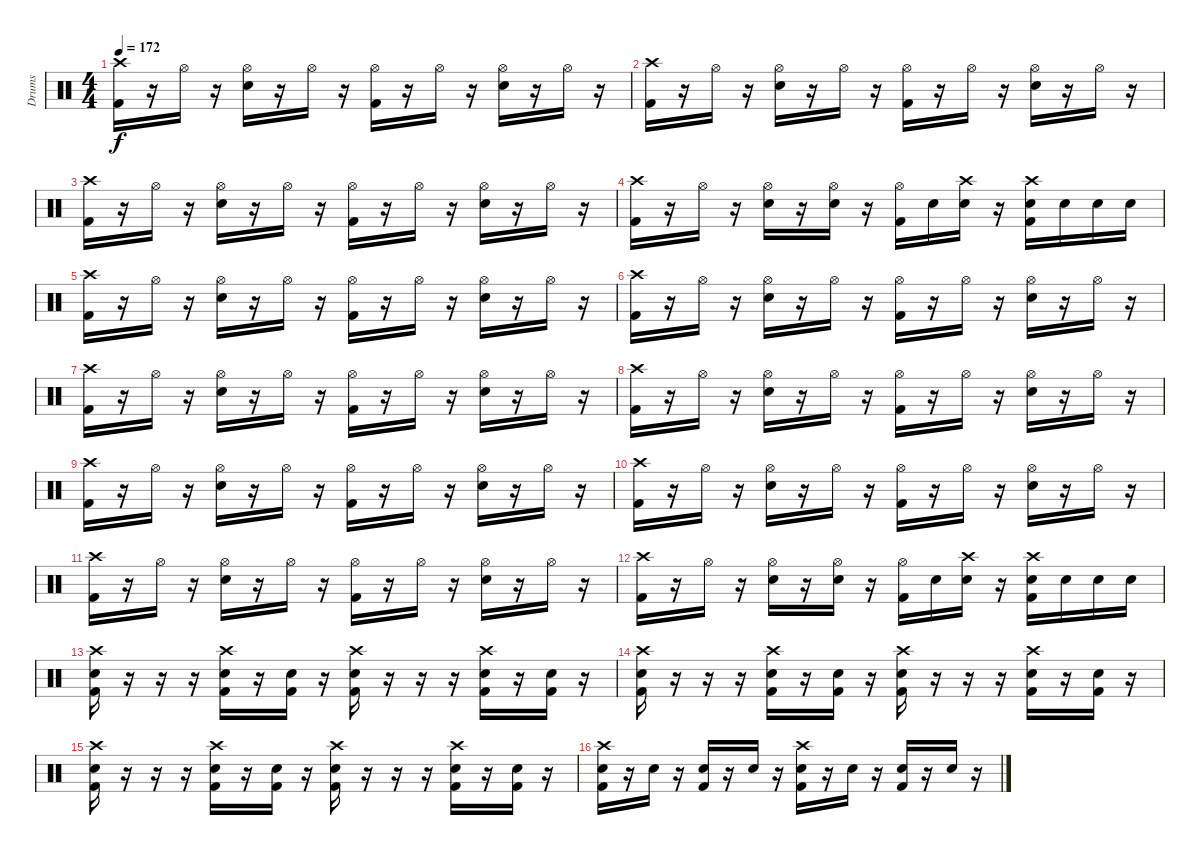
\track ("Drums" "Drums") {instrument percussion}
\staff {score}
\articulation defaults
\ts (4 4)
\tempo 172
\clef neutral
\ks c
("Crash high (hit)" "Kick (hit) 2").16{dy f} r.16 "Hi-Hat (open)".16 r.16 ("Hi-Hat (open)" "Electric Snare (hit)").16 r.16 "Hi-Hat (open)".16 r.16 ("Hi-Hat (open)" "Kick (hit) 2").16 r.16 "Hi-Hat (open)".16 r.16 ("Hi-Hat (open)" "Electric Snare (hit)").16 r.16 "Hi-Hat (open)".16 r.16 |
("Crash high (hit)" "Kick (hit) 2").16 r.16 "Hi-Hat (open)".16 r.16 ("Hi-Hat (open)" "Electric Snare (hit)").16 r.16 "Hi-Hat (open)".16 r.16 ("Hi-Hat (open)" "Kick (hit) 2").16 r.16 "Hi-Hat (open)".16 r.16 ("Hi-Hat (open)" "Electric Snare (hit)").16 r.16 "Hi-Hat (open)".16 r.16 |
("Crash high (hit)" "Kick (hit) 2").16 r.16 "Hi-Hat (open)".16 r.16 ("Hi-Hat (open)" "Electric Snare (hit)").16 r.16 "Hi-Hat (open)".16 r.16 ("Hi-Hat (open)" "Kick (hit) 2").16 r.16 "Hi-Hat (open)".16 r.16 ("Hi-Hat (open)" "Electric Snare (hit)").16 r.16 "Hi-Hat (open)".16 r.16 |
("Crash high (hit)" "Kick (hit) 2").16 r.16 "Hi-Hat (open)".16 r.16 ("Hi-Hat (open)" "Electric Snare (hit)").16 r.16 ("Hi-Hat (open)" "Electric Snare (hit)").16 r.16 ("Hi-Hat (open)" "Kick (hit) 2").16 "Electric Snare (hit)".16 ("Crash high (hit)" "Electric Snare (hit)").16 r.16 ("Crash high (hit)" "Electric Snare (hit)" "Kick (hit) 2").16 "Electric Snare (hit)".16 "Electric Snare (hit)".16 "Electric Snare (hit)".16 |
("Crash high (hit)" "Kick (hit) 2").16 r.16 "Hi-Hat (open)".16 r.16 ("Hi-Hat (open)" "Electric Snare (hit)").16 r.16 "Hi-Hat (open)".16 r.16 ("Hi-Hat (open)" "Kick (hit) 2").16 r.16 "Hi-Hat (open)".16 r.16 ("Hi-Hat (open)" "Electric Snare (hit)").16 r.16 "Hi-Hat (open)".16 r.16 |
("Crash high (hit)" "Kick (hit) 2").16 r.16 "Hi-Hat (open)".16 r.16 ("Hi-Hat (open)" "Electric Snare (hit)").16 r.16 "Hi-Hat (open)".16 r.16 ("Hi-Hat (open)" "Kick (hit) 2").16 r.16 "Hi-Hat (open)".16 r.16 ("Hi-Hat (open)" "Electric Snare (hit)").16 r.16 "Hi-Hat (open)".16 r.16 |
("Crash high (hit)" "Kick (hit) 2").16 r.16 "Hi-Hat (open)".16 r.16 ("Hi-Hat (open)" "Electric Snare (hit)").16 r.16 "Hi-Hat (open)".16 r.16 ("Hi-Hat (open)" "Kick (hit) 2").16 r.16 "Hi-Hat (open)".16 r.16 ("Hi-Hat (open)" "Electric Snare (hit)").16 r.16 "Hi-Hat (open)".16 r.16 |
("Crash high (hit)" "Kick (hit) 2").16 r.16 "Hi-Hat (open)".16 r.16 ("Hi-Hat (open)" "Electric Snare (hit)").16 r.16 "Hi-Hat (open)".16 r.16 ("Hi-Hat (open)" "Kick (hit) 2").16 r.16 "Hi-Hat (open)".16 r.16 ("Hi-Hat (open)" "Electric Snare (hit)").16 r.16 "Hi-Hat (open)".16 r.16 |
("Crash high (hit)" "Kick (hit) 2").16 r.16 "Hi-Hat (open)".16 r.16 ("Hi-Hat (open)" "Electric Snare (hit)").16 r.16 "Hi-Hat (open)".16 r.16 ("Hi-Hat (open)" "Kick (hit) 2").16 r.16 "Hi-Hat (open)".16 r.16 ("Hi-Hat (open)" "Electric Snare (hit)").16 r.16 "Hi-Hat (open)".16 r.16 |
("Crash high (hit)" "Kick (hit) 2").16 r.16 "Hi-Hat (open)".16 r.16 ("Hi-Hat (open)" "Electric Snare (hit)").16 r.16 "Hi-Hat (open)".16 r.16 ("Hi-Hat (open)" "Kick (hit) 2").16 r.16 "Hi-Hat (open)".16 r.16 ("Hi-Hat (open)" "Electric Snare (hit)").16 r.16 "Hi-Hat (open)".16 r.16 |
("Crash high (hit)" "Kick (hit) 2").16 r.16 "Hi-Hat (open)".16 r.16 ("Hi-Hat (open)" "Electric Snare (hit)").16 r.16 "Hi-Hat (open)".16 r.16 ("Hi-Hat (open)" "Kick (hit) 2").16 r.16 "Hi-Hat (open)".16 r.16 ("Hi-Hat (open)" "Electric Snare (hit)").16 r.16 "Hi-Hat (open)".16 r.16 |
("Crash high (hit)" "Kick (hit) 2").16 r.16 "Hi-Hat (open)".16 r.16 ("Hi-Hat (open)" "Electric Snare (hit)").16 r.16 ("Hi-Hat (open)" "Electric Snare (hit)").16 r.16 ("Hi-Hat (open)" "Kick (hit) 2").16 "Electric Snare (hit)".16 ("Crash high (hit)" "Electric Snare (hit)").16 r.16 ("Crash high (hit)" "Electric Snare (hit)" "Kick (hit) 2").16 "Electric Snare (hit)".16 "Electric Snare (hit)".16 "Electric Snare (hit)".16 |
("Crash high (hit)" "Electric Snare (hit)" "Kick (hit) 2").16 r.16 r.16 r.16 ("Crash high (hit)" "Electric Snare (hit)" "Kick (hit) 2").16 r.16 ("Electric Snare (hit)" "Kick (hit) 2").16 r.16 ("Crash high (hit)" "Electric Snare (hit)" "Kick (hit) 2").16 r.16 r.16 r.16 ("Crash high (hit)" "Electric Snare (hit)" "Kick (hit) 2").16 r.16 ("Electric Snare (hit)" "Kick (hit) 2").16 r.16 |
("Crash high (hit)" "Electric Snare (hit)" "Kick (hit) 2").16 r.16 r.16 r.16 ("Crash high (hit)" "Electric Snare (hit)" "Kick (hit) 2").16 r.16 ("Electric Snare (hit)" "Kick (hit) 2").16 r.16 ("Crash high (hit)" "Electric Snare (hit)" "Kick (hit) 2").16 r.16 r.16 r.16 ("Crash high (hit)" "Electric Snare (hit)" "Kick (hit) 2").16 r.16 ("Electric Snare (hit)" "Kick (hit) 2").16 r.16 |
("Crash high (hit)" "Electric Snare (hit)" "Kick (hit) 2").16 r.16 r.16 r.16 ("Crash high (hit)" "Electric Snare (hit)" "Kick (hit) 2").16 r.16 ("Electric Snare (hit)" "Kick (hit) 2").16 r.16 ("Crash high (hit)" "Electric Snare (hit)" "Kick (hit) 2").16 r.16 r.16 r.16 ("Crash high (hit)" "Electric Snare (hit)" "Kick (hit) 2").16 r.16 ("Electric Snare (hit)" "Kick (hit) 2").16 r.16 |
("Crash high (hit)" "Electric Snare (hit)" "Kick (hit) 2").16 r.16 "Electric Snare (hit)".16 r.16 ("Electric Snare (hit)" "Kick (hit) 2").16 r.16 "Electric Snare (hit)".16 r.16 ("Crash high (hit)" "Electric Snare (hit)" "Kick (hit) 2").16 r.16 "Electric Snare (hit)".16 r.16 ("Electric Snare (hit)" "Kick (hit) 2").16 r.16 "Electric Snare (hit)".16 r.16
